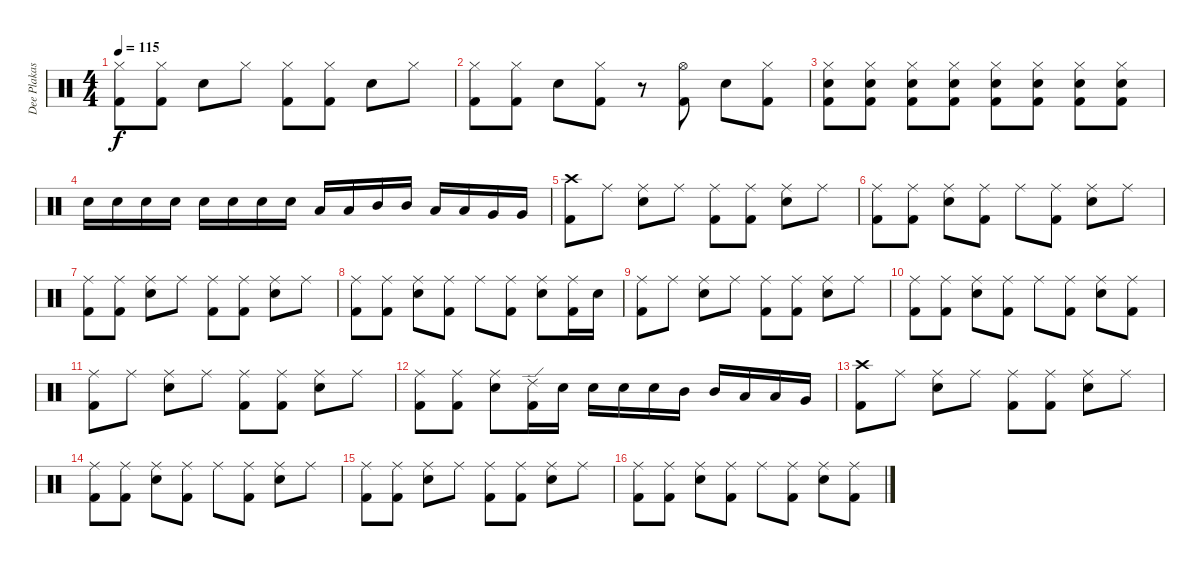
\track ("Dee Plakas" "Dee Plakas") {instrument percussion}
\staff {score}
\articulation defaults
\ts (4 4)
\tempo 115
\clef neutral
\ks c
("Hi-Hat (closed)" "Kick (hit) 2").8{dy f} ("Hi-Hat (closed)" "Kick (hit) 2").8 "Snare (hit) 2".8 "Hi-Hat (closed)".8 ("Hi-Hat (closed)" "Kick (hit) 2").8 ("Hi-Hat (closed)" "Kick (hit) 2").8 "Snare (hit) 2".8 "Hi-Hat (closed)".8 |
("Hi-Hat (closed)" "Kick (hit) 2").8 ("Hi-Hat (closed)" "Kick (hit) 2").8 "Snare (hit) 2".8 ("Hi-Hat (closed)" "Kick (hit) 2").8 r.8 ("Hi-Hat (open)" "Kick (hit) 2").8 "Snare (hit) 2".8 ("Hi-Hat (closed)" "Kick (hit) 2").8 |
("Hi-Hat (closed)" "Snare (hit) 2" "Kick (hit) 2").8 ("Hi-Hat (closed)" "Snare (hit) 2" "Kick (hit) 2").8 ("Hi-Hat (closed)" "Snare (hit) 2" "Kick (hit) 2").8 ("Hi-Hat (closed)" "Snare (hit) 2" "Kick (hit) 2").8 ("Hi-Hat (closed)" "Snare (hit) 2" "Kick (hit) 2").8 ("Hi-Hat (closed)" "Snare (hit) 2" "Kick (hit) 2").8 ("Hi-Hat (closed)" "Snare (hit) 2" "Kick (hit) 2").8 ("Hi-Hat (closed)" "Snare (hit) 2" "Kick (hit) 2").8 |
"Snare (hit) 2".16 "Snare (hit) 2".16 "Snare (hit) 2".16 "Snare (hit) 2".16 "Snare (hit) 2".16 "Snare (hit) 2".16 "Snare (hit) 2".16 "Snare (hit) 2".16 "Low Tom (hit)".16 "Low Tom (hit)".16 "Mid Tom (hit)".16 "Mid Tom (hit)".16 "Low Tom (hit)".16 "Low Tom (hit)".16 "Very Low Tom (hit)".16 "Very Low Tom (hit)".16 |
("Crash high (hit)" "Kick (hit) 2").8 "Ride (middle)".8 ("Ride (middle)" "Snare (hit) 2").8 "Ride (middle)".8 ("Ride (middle)" "Kick (hit) 2").8 ("Ride (middle)" "Kick (hit) 2").8 ("Ride (middle)" "Snare (hit) 2").8 "Ride (middle)".8 |
("Ride (middle)" "Kick (hit) 2").8 ("Ride (middle)" "Kick (hit) 2").8 ("Ride (middle)" "Snare (hit) 2").8 ("Ride (middle)" "Kick (hit) 2").8 "Ride (middle)".8 ("Ride (middle)" "Kick (hit) 2").8 ("Ride (middle)" "Snare (hit) 2").8 "Ride (middle)".8 |
("Ride (middle)" "Kick (hit) 2").8 ("Ride (middle)" "Kick (hit) 2").8 ("Ride (middle)" "Snare (hit) 2").8 "Ride (middle)".8 ("Ride (middle)" "Kick (hit) 2").8 ("Ride (middle)" "Kick (hit) 2").8 ("Ride (middle)" "Snare (hit) 2").8 "Ride (middle)".8 |
("Ride (middle)" "Kick (hit) 2").8 ("Ride (middle)" "Kick (hit) 2").8 ("Ride (middle)" "Snare (hit) 2").8 ("Ride (middle)" "Kick (hit) 2").8 "Ride (middle)".8 ("Ride (middle)" "Kick (hit) 2").8 ("Ride (middle)" "Snare (hit) 2").8 ("Ride (middle)" "Kick (hit) 2").16 "Snare (hit) 2".16 |
("Ride (middle)" "Kick (hit) 2").8 "Ride (middle)".8 ("Ride (middle)" "Snare (hit) 2").8 "Ride (middle)".8 ("Ride (middle)" "Kick (hit) 2").8 ("Ride (middle)" "Kick (hit) 2").8 ("Ride (middle)" "Snare (hit) 2").8 "Ride (middle)".8 |
("Ride (middle)" "Kick (hit) 2").8 ("Ride (middle)" "Kick (hit) 2").8 ("Ride (middle)" "Snare (hit) 2").8 ("Ride (middle)" "Kick (hit) 2").8 "Ride (middle)".8 ("Ride (middle)" "Kick (hit) 2").8 ("Ride (middle)" "Snare (hit) 2").8 ("Ride (middle)" "Kick (hit) 2").8 |
("Ride (middle)" "Kick (hit) 2").8 "Ride (middle)".8 ("Ride (middle)" "Snare (hit) 2").8 "Ride (middle)".8 ("Ride (middle)" "Kick (hit) 2").8 ("Ride (middle)" "Kick (hit) 2").8 ("Ride (middle)" "Snare (hit) 2").8 "Ride (middle)".8 |
("Ride (middle)" "Kick (hit) 2").8 ("Ride (middle)" "Kick (hit) 2").8 ("Ride (middle)" "Snare (hit) 2").8 ("Ride (edge) 2" "Kick (hit) 2").16 "Snare (hit) 2".16 "Snare (hit) 2".16 "Snare (hit) 2".16 "Snare (hit) 2".16 "Mid Tom (hit)".16 "Mid Tom (hit)".16 "Low Tom (hit)".16 "Low Tom (hit)".16 "Very Low Tom (hit)".16 |
("Crash high (hit)" "Kick (hit) 2").8 "Ride (middle)".8 ("Ride (middle)" "Snare (hit) 2").8 "Ride (middle)".8 ("Ride (middle)" "Kick (hit) 2").8 ("Ride (middle)" "Kick (hit) 2").8 ("Ride (middle)" "Snare (hit) 2").8 "Ride (middle)".8 |
("Ride (middle)" "Kick (hit) 2").8 ("Ride (middle)" "Kick (hit) 2").8 ("Ride (middle)" "Snare (hit) 2").8 ("Ride (middle)" "Kick (hit) 2").8 "Ride (middle)".8 ("Ride (middle)" "Kick (hit) 2").8 ("Ride (middle)" "Snare (hit) 2").8 "Ride (middle)".8 |
("Ride (middle)" "Kick (hit) 2").8 ("Ride (middle)" "Kick (hit) 2").8 ("Ride (middle)" "Snare (hit) 2").8 "Ride (middle)".8 ("Ride (middle)" "Kick (hit) 2").8 ("Ride (middle)" "Kick (hit) 2").8 ("Ride (middle)" "Snare (hit) 2").8 "Ride (middle)".8 |
("Ride (middle)" "Kick (hit) 2").8 ("Ride (middle)" "Kick (hit) 2").8 ("Ride (middle)" "Snare (hit) 2").8 ("Ride (middle)" "Kick (hit) 2").8 "Ride (middle)".8 ("Ride (middle)" "Kick (hit) 2").8 ("Ride (middle)" "Snare (hit) 2").8 ("Ride (middle)" "Kick (hit) 2").8
